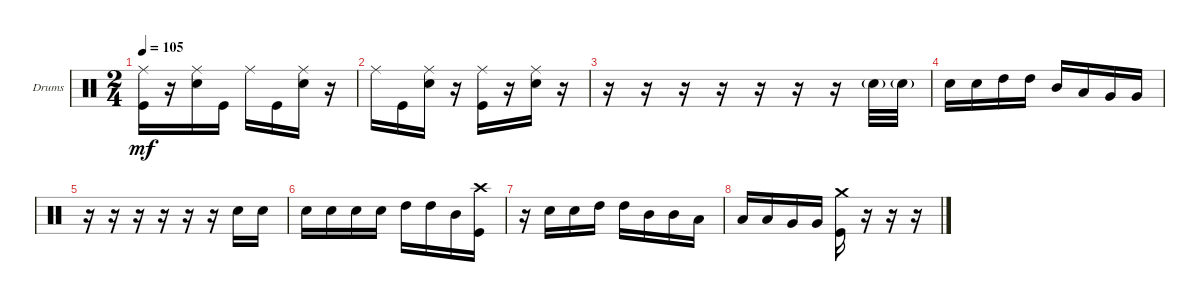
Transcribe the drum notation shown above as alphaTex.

\defaultSystemsLayout 4
\bracketExtendMode groupsimilarinstruments
\firstSystemTrackNameOrientation horizontal
\otherSystemsTrackNameOrientation horizontal
\track ("Godd" "Drums") {instrument percussion}
\staff {score}
\articulation defaults
\ts (2 4)
\tempo 105
\clef neutral
\ks c
("Kick (hit)" "Ride (middle)").16{dy mf} r.16 ("Snare (hit) 2" "Ride (middle)").16 "Kick (hit)".16 "Ride (middle)".16 "Kick (hit)".16 ("Snare (hit) 2" "Ride (middle)").16 r.16 |
"Ride (middle)".16 "Kick (hit)".16 ("Snare (hit) 2" "Ride (middle)").16 r.16 ("Kick (hit)" "Ride (middle)").16 r.16 ("Snare (hit) 2" "Ride (middle)").16 r.16 |
r.16 r.16 r.16 r.16 r.16 r.16 r.16 "Snare (hit) 2"{g}.32 "Snare (hit) 2"{g}.32 |
"Snare (hit) 2".16 "Snare (hit) 2".16 "High Tom (hit)".16 "High Tom (hit)".16 "Mid Tom (hit)".16 "Low Tom (hit)".16 "Very Low Tom (hit)".16 "Very Low Tom (hit)".16 |
r.16 r.16 r.16 r.16 r.16 r.16 "Snare (hit) 2".16 "Snare (hit) 2".16 |
"Snare (hit) 2".16 "Snare (hit) 2".16 "Snare (hit) 2".16 "Snare (hit) 2".16 "High Tom (hit)".16 "High Tom (hit)".16 "Mid Tom (hit)".16 ("Kick (hit)" "Crash high (hit)").16 |
r.16 "Snare (hit) 2".16 "Snare (hit) 2".16 "High Tom (hit)".16 "High Tom (hit)".16 "Mid Tom (hit)".16 "Mid Tom (hit)".16 "Low Tom (hit)".16 |
"Low Tom (hit)".16 "Low Tom (hit)".16 "Very Low Tom (hit)".16 "Very Low Tom (hit)".16 ("Kick (hit)" "Crash medium (hit)").16 r.16 r.16 r.16
